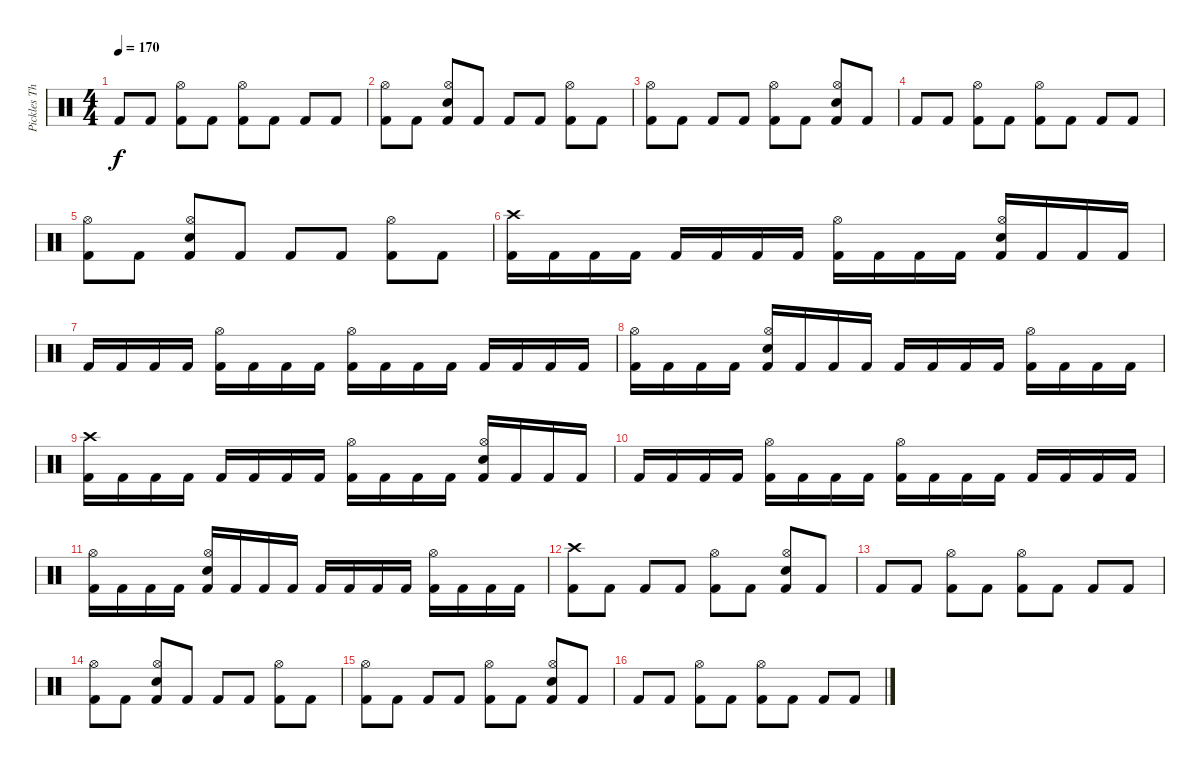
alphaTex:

\track ("Pickles The Drummer" "Pickles Th") {instrument percussion}
\staff {score}
\articulation defaults
\ts (4 4)
\tempo 170
\clef neutral
\ks c "Kick (hit) 2".8{dy f} "Kick (hit) 2".8
("Kick (hit) 2" "Hi-Hat (open)").8 "Kick (hit) 2".8 ("Kick (hit) 2" "Hi-Hat (open)").8 "Kick (hit) 2".8 "Kick (hit) 2".8 "Kick (hit) 2".8 |
("Kick (hit) 2" "Hi-Hat (open)").8 "Kick (hit) 2".8 ("Kick (hit) 2" "Hi-Hat (open)" "Snare (hit) 2").8 "Kick (hit) 2".8 "Kick (hit) 2".8 "Kick (hit) 2".8 ("Kick (hit) 2" "Hi-Hat (open)").8 "Kick (hit) 2".8 |
("Kick (hit) 2" "Hi-Hat (open)").8 "Kick (hit) 2".8 "Kick (hit) 2".8 "Kick (hit) 2".8 ("Kick (hit) 2" "Hi-Hat (open)").8 "Kick (hit) 2".8 ("Kick (hit) 2" "Hi-Hat (open)" "Snare (hit) 2").8 "Kick (hit) 2".8 |
"Kick (hit) 2".8 "Kick (hit) 2".8 ("Kick (hit) 2" "Hi-Hat (open)").8 "Kick (hit) 2".8 ("Kick (hit) 2" "Hi-Hat (open)").8 "Kick (hit) 2".8 "Kick (hit) 2".8 "Kick (hit) 2".8 |
("Kick (hit) 2" "Hi-Hat (open)").8 "Kick (hit) 2".8 ("Kick (hit) 2" "Hi-Hat (open)" "Snare (hit) 2").8 "Kick (hit) 2".8 "Kick (hit) 2".8 "Kick (hit) 2".8 ("Kick (hit) 2" "Hi-Hat (open)").8 "Kick (hit) 2".8 |
("Kick (hit) 2" "Crash high (hit)").16 "Kick (hit) 2".16 "Kick (hit) 2".16 "Kick (hit) 2".16 "Kick (hit) 2".16 "Kick (hit) 2".16 "Kick (hit) 2".16 "Kick (hit) 2".16 ("Kick (hit) 2" "Hi-Hat (open)").16 "Kick (hit) 2".16 "Kick (hit) 2".16 "Kick (hit) 2".16 ("Kick (hit) 2" "Hi-Hat (open)" "Snare (hit) 2").16 "Kick (hit) 2".16 "Kick (hit) 2".16 "Kick (hit) 2".16 |
"Kick (hit) 2".16 "Kick (hit) 2".16 "Kick (hit) 2".16 "Kick (hit) 2".16 ("Kick (hit) 2" "Hi-Hat (open)").16 "Kick (hit) 2".16 "Kick (hit) 2".16 "Kick (hit) 2".16 ("Kick (hit) 2" "Hi-Hat (open)").16 "Kick (hit) 2".16 "Kick (hit) 2".16 "Kick (hit) 2".16 "Kick (hit) 2".16 "Kick (hit) 2".16 "Kick (hit) 2".16 "Kick (hit) 2".16 |
("Kick (hit) 2" "Hi-Hat (open)").16 "Kick (hit) 2".16 "Kick (hit) 2".16 "Kick (hit) 2".16 ("Kick (hit) 2" "Hi-Hat (open)" "Snare (hit) 2").16 "Kick (hit) 2".16 "Kick (hit) 2".16 "Kick (hit) 2".16 "Kick (hit) 2".16 "Kick (hit) 2".16 "Kick (hit) 2".16 "Kick (hit) 2".16 ("Kick (hit) 2" "Hi-Hat (open)").16 "Kick (hit) 2".16 "Kick (hit) 2".16 "Kick (hit) 2".16 |
("Kick (hit) 2" "Crash high (hit)").16 "Kick (hit) 2".16 "Kick (hit) 2".16 "Kick (hit) 2".16 "Kick (hit) 2".16 "Kick (hit) 2".16 "Kick (hit) 2".16 "Kick (hit) 2".16 ("Kick (hit) 2" "Hi-Hat (open)").16 "Kick (hit) 2".16 "Kick (hit) 2".16 "Kick (hit) 2".16 ("Kick (hit) 2" "Hi-Hat (open)" "Snare (hit) 2").16 "Kick (hit) 2".16 "Kick (hit) 2".16 "Kick (hit) 2".16 |
"Kick (hit) 2".16 "Kick (hit) 2".16 "Kick (hit) 2".16 "Kick (hit) 2".16 ("Kick (hit) 2" "Hi-Hat (open)").16 "Kick (hit) 2".16 "Kick (hit) 2".16 "Kick (hit) 2".16 ("Kick (hit) 2" "Hi-Hat (open)").16 "Kick (hit) 2".16 "Kick (hit) 2".16 "Kick (hit) 2".16 "Kick (hit) 2".16 "Kick (hit) 2".16 "Kick (hit) 2".16 "Kick (hit) 2".16 |
("Kick (hit) 2" "Hi-Hat (open)").16 "Kick (hit) 2".16 "Kick (hit) 2".16 "Kick (hit) 2".16 ("Kick (hit) 2" "Hi-Hat (open)" "Snare (hit) 2").16 "Kick (hit) 2".16 "Kick (hit) 2".16 "Kick (hit) 2".16 "Kick (hit) 2".16 "Kick (hit) 2".16 "Kick (hit) 2".16 "Kick (hit) 2".16 ("Kick (hit) 2" "Hi-Hat (open)").16 "Kick (hit) 2".16 "Kick (hit) 2".16 "Kick (hit) 2".16 |
("Kick (hit) 2" "Crash high (hit)").8 "Kick (hit) 2".8 "Kick (hit) 2".8 "Kick (hit) 2".8 ("Kick (hit) 2" "Hi-Hat (open)").8 "Kick (hit) 2".8 ("Kick (hit) 2" "Hi-Hat (open)" "Snare (hit) 2").8 "Kick (hit) 2".8 |
"Kick (hit) 2".8 "Kick (hit) 2".8 ("Kick (hit) 2" "Hi-Hat (open)").8 "Kick (hit) 2".8 ("Kick (hit) 2" "Hi-Hat (open)").8 "Kick (hit) 2".8 "Kick (hit) 2".8 "Kick (hit) 2".8 |
("Kick (hit) 2" "Hi-Hat (open)").8 "Kick (hit) 2".8 ("Kick (hit) 2" "Hi-Hat (open)" "Snare (hit) 2").8 "Kick (hit) 2".8 "Kick (hit) 2".8 "Kick (hit) 2".8 ("Kick (hit) 2" "Hi-Hat (open)").8 "Kick (hit) 2".8 |
("Kick (hit) 2" "Hi-Hat (open)").8 "Kick (hit) 2".8 "Kick (hit) 2".8 "Kick (hit) 2".8 ("Kick (hit) 2" "Hi-Hat (open)").8 "Kick (hit) 2".8 ("Kick (hit) 2" "Hi-Hat (open)" "Snare (hit) 2").8 "Kick (hit) 2".8 |
"Kick (hit) 2".8 "Kick (hit) 2".8 ("Kick (hit) 2" "Hi-Hat (open)").8 "Kick (hit) 2".8 ("Kick (hit) 2" "Hi-Hat (open)").8 "Kick (hit) 2".8 "Kick (hit) 2".8 "Kick (hit) 2".8
